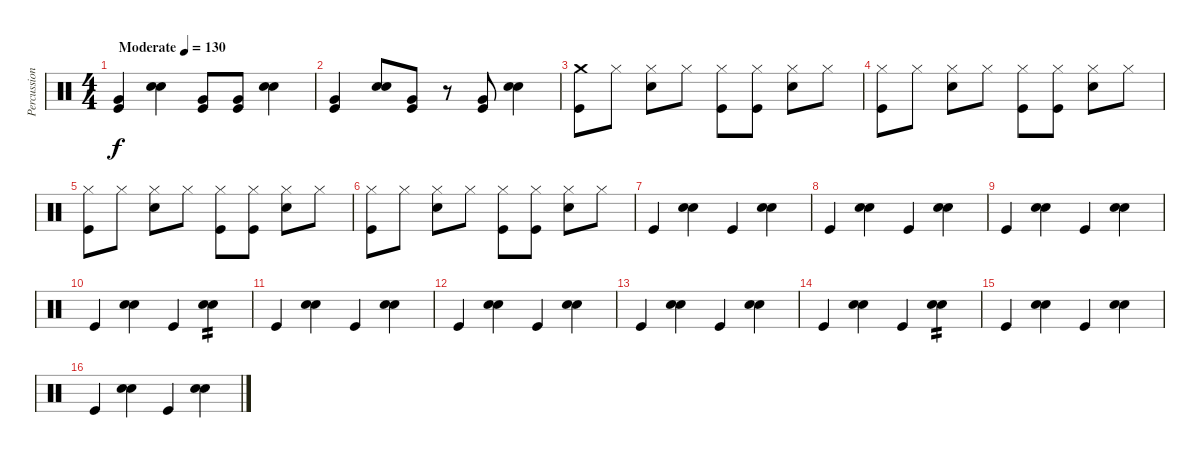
\track ("Percussion" "Percussion") {instrument percussion}
\staff {score}
\articulation defaults
\ts (4 4)
\tempo (130 "Moderate")
\clef neutral
\ks c
("Kick (hit)" "Very Low Tom (hit)").4{dy f} ("Snare (hit) 2" "Hand Clap (hit)").4 ("Kick (hit)" "Very Low Tom (hit)").8 ("Kick (hit)" "Very Low Tom (hit)").8 ("Snare (hit) 2" "Hand Clap (hit)").4 |
("Kick (hit)" "Very Low Tom (hit)").4 ("Snare (hit) 2" "Hand Clap (hit)").8 ("Kick (hit)" "Very Low Tom (hit)").8 r.8 ("Kick (hit)" "Very Low Tom (hit)").8 ("Snare (hit) 2" "Hand Clap (hit)").4 |
("Crash medium (hit)" "Kick (hit)").8 "Hi-Hat (closed)".8 ("Hi-Hat (closed)" "Snare (hit) 2").8 "Hi-Hat (closed)".8 ("Hi-Hat (closed)" "Kick (hit)").8 ("Hi-Hat (closed)" "Kick (hit)").8 ("Hi-Hat (closed)" "Snare (hit) 2").8 "Hi-Hat (closed)".8 |
("Hi-Hat (closed)" "Kick (hit)").8 "Hi-Hat (closed)".8 ("Hi-Hat (closed)" "Snare (hit) 2").8 "Hi-Hat (closed)".8 ("Hi-Hat (closed)" "Kick (hit)").8 ("Hi-Hat (closed)" "Kick (hit)").8 ("Hi-Hat (closed)" "Snare (hit) 2").8 "Hi-Hat (closed)".8 |
("Hi-Hat (closed)" "Kick (hit)").8 "Hi-Hat (closed)".8 ("Hi-Hat (closed)" "Snare (hit) 2").8 "Hi-Hat (closed)".8 ("Hi-Hat (closed)" "Kick (hit)").8 ("Hi-Hat (closed)" "Kick (hit)").8 ("Hi-Hat (closed)" "Snare (hit) 2").8 "Hi-Hat (closed)".8 |
("Hi-Hat (closed)" "Kick (hit)").8 "Hi-Hat (closed)".8 ("Hi-Hat (closed)" "Snare (hit) 2").8 "Hi-Hat (closed)".8 ("Hi-Hat (closed)" "Kick (hit)").8 ("Hi-Hat (closed)" "Kick (hit)").8 ("Hi-Hat (closed)" "Snare (hit) 2").8 "Hi-Hat (closed)".8 |
"Kick (hit)".4 ("Snare (hit) 2" "Hand Clap (hit)").4 "Kick (hit)".4 ("Snare (hit) 2" "Hand Clap (hit)").4 |
"Kick (hit)".4 ("Snare (hit) 2" "Hand Clap (hit)").4 "Kick (hit)".4 ("Snare (hit) 2" "Hand Clap (hit)").4 |
"Kick (hit)".4 ("Snare (hit) 2" "Hand Clap (hit)").4 "Kick (hit)".4 ("Snare (hit) 2" "Hand Clap (hit)").4 |
"Kick (hit)".4 ("Snare (hit) 2" "Hand Clap (hit)").4 "Kick (hit)".4 ("Snare (hit) 2" "Hand Clap (hit)").4{tp 2} |
"Kick (hit)".4 ("Snare (hit) 2" "Hand Clap (hit)").4 "Kick (hit)".4 ("Snare (hit) 2" "Hand Clap (hit)").4 |
"Kick (hit)".4 ("Snare (hit) 2" "Hand Clap (hit)").4 "Kick (hit)".4 ("Snare (hit) 2" "Hand Clap (hit)").4 |
"Kick (hit)".4 ("Snare (hit) 2" "Hand Clap (hit)").4 "Kick (hit)".4 ("Snare (hit) 2" "Hand Clap (hit)").4 |
"Kick (hit)".4 ("Snare (hit) 2" "Hand Clap (hit)").4 "Kick (hit)".4 ("Snare (hit) 2" "Hand Clap (hit)").4{tp 2} |
"Kick (hit)".4 ("Snare (hit) 2" "Hand Clap (hit)").4 "Kick (hit)".4 ("Snare (hit) 2" "Hand Clap (hit)").4 |
"Kick (hit)".4 ("Snare (hit) 2" "Hand Clap (hit)").4 "Kick (hit)".4 ("Snare (hit) 2" "Hand Clap (hit)").4
